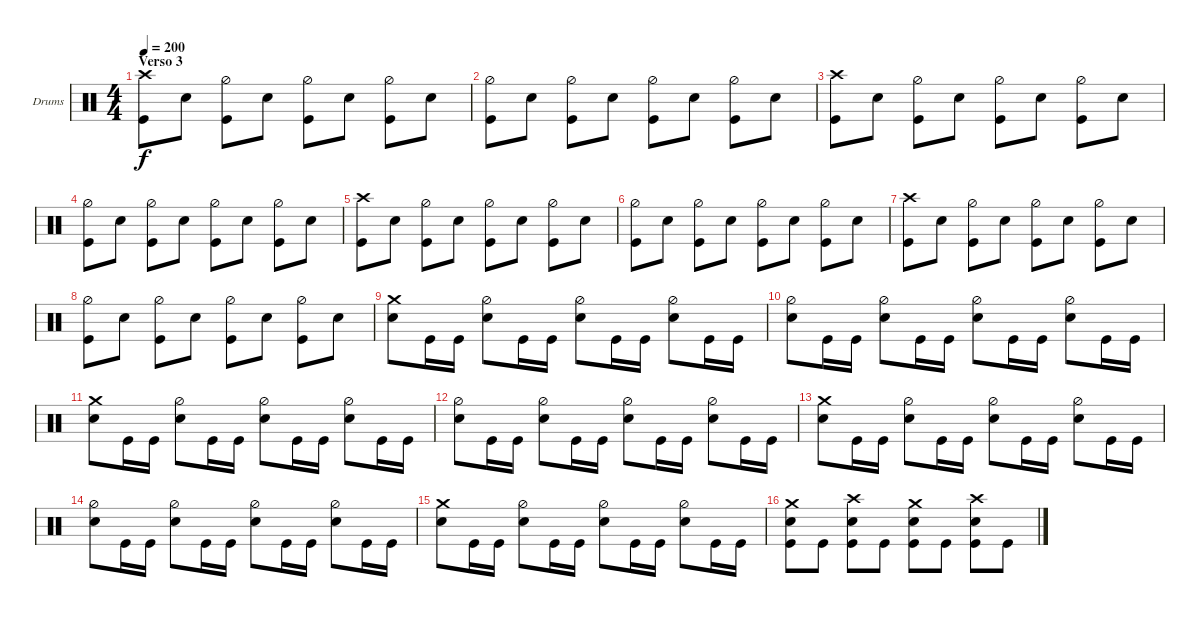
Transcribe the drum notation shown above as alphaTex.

\defaultSystemsLayout 4
\bracketExtendMode groupsimilarinstruments
\firstSystemTrackNameOrientation horizontal
\otherSystemsTrackNameOrientation horizontal
\track ("Drums" "Drums") {instrument percussion}
\staff {score}
\articulation defaults
\ts (4 4)
\section ("" "Verso 3")
\tempo 200
\clef neutral
\ks c
("Crash high (hit)" "Kick (hit)").8{dy f} "Snare (hit) 2".8 ("Hi-Hat (half)" "Kick (hit)").8 "Snare (hit) 2".8 ("Hi-Hat (half)" "Kick (hit)").8 "Snare (hit) 2".8 ("Hi-Hat (half)" "Kick (hit)").8 "Snare (hit) 2".8 |
("Hi-Hat (half)" "Kick (hit)").8 "Snare (hit) 2".8 ("Hi-Hat (half)" "Kick (hit)").8 "Snare (hit) 2".8 ("Hi-Hat (half)" "Kick (hit)").8 "Snare (hit) 2".8 ("Hi-Hat (half)" "Kick (hit)").8 "Snare (hit) 2".8 |
("Crash high (hit)" "Kick (hit)").8 "Snare (hit) 2".8 ("Hi-Hat (half)" "Kick (hit)").8 "Snare (hit) 2".8 ("Hi-Hat (half)" "Kick (hit)").8 "Snare (hit) 2".8 ("Hi-Hat (half)" "Kick (hit)").8 "Snare (hit) 2".8 |
("Hi-Hat (half)" "Kick (hit)").8 "Snare (hit) 2".8 ("Hi-Hat (half)" "Kick (hit)").8 "Snare (hit) 2".8 ("Hi-Hat (half)" "Kick (hit)").8 "Snare (hit) 2".8 ("Hi-Hat (half)" "Kick (hit)").8 "Snare (hit) 2".8 |
("Crash high (hit)" "Kick (hit)").8 "Snare (hit) 2".8 ("Hi-Hat (half)" "Kick (hit)").8 "Snare (hit) 2".8 ("Hi-Hat (half)" "Kick (hit)").8 "Snare (hit) 2".8 ("Hi-Hat (half)" "Kick (hit)").8 "Snare (hit) 2".8 |
("Hi-Hat (half)" "Kick (hit)").8 "Snare (hit) 2".8 ("Hi-Hat (half)" "Kick (hit)").8 "Snare (hit) 2".8 ("Hi-Hat (half)" "Kick (hit)").8 "Snare (hit) 2".8 ("Hi-Hat (half)" "Kick (hit)").8 "Snare (hit) 2".8 |
("Crash high (hit)" "Kick (hit)").8 "Snare (hit) 2".8 ("Hi-Hat (half)" "Kick (hit)").8 "Snare (hit) 2".8 ("Hi-Hat (half)" "Kick (hit)").8 "Snare (hit) 2".8 ("Hi-Hat (half)" "Kick (hit)").8 "Snare (hit) 2".8 |
("Hi-Hat (half)" "Kick (hit)").8 "Snare (hit) 2".8 ("Hi-Hat (half)" "Kick (hit)").8 "Snare (hit) 2".8 ("Hi-Hat (half)" "Kick (hit)").8 "Snare (hit) 2".8 ("Hi-Hat (half)" "Kick (hit)").8 "Snare (hit) 2".8 |
("Snare (hit) 2" "Crash medium (hit)").8 "Kick (hit)".16 "Kick (hit)".16 ("Snare (hit) 2" "Hi-Hat (half)").8 "Kick (hit)".16 "Kick (hit)".16 ("Snare (hit) 2" "Hi-Hat (half)").8 "Kick (hit)".16 "Kick (hit)".16 ("Snare (hit) 2" "Hi-Hat (half)").8 "Kick (hit)".16 "Kick (hit)".16 |
("Snare (hit) 2" "Hi-Hat (half)").8 "Kick (hit)".16 "Kick (hit)".16 ("Snare (hit) 2" "Hi-Hat (half)").8 "Kick (hit)".16 "Kick (hit)".16 ("Snare (hit) 2" "Hi-Hat (half)").8 "Kick (hit)".16 "Kick (hit)".16 ("Snare (hit) 2" "Hi-Hat (half)").8 "Kick (hit)".16 "Kick (hit)".16 |
("Snare (hit) 2" "Crash medium (hit)").8 "Kick (hit)".16 "Kick (hit)".16 ("Snare (hit) 2" "Hi-Hat (half)").8 "Kick (hit)".16 "Kick (hit)".16 ("Snare (hit) 2" "Hi-Hat (half)").8 "Kick (hit)".16 "Kick (hit)".16 ("Snare (hit) 2" "Hi-Hat (half)").8 "Kick (hit)".16 "Kick (hit)".16 |
("Snare (hit) 2" "Hi-Hat (half)").8 "Kick (hit)".16 "Kick (hit)".16 ("Snare (hit) 2" "Hi-Hat (half)").8 "Kick (hit)".16 "Kick (hit)".16 ("Snare (hit) 2" "Hi-Hat (half)").8 "Kick (hit)".16 "Kick (hit)".16 ("Snare (hit) 2" "Hi-Hat (half)").8 "Kick (hit)".16 "Kick (hit)".16 |
("Snare (hit) 2" "Crash medium (hit)").8 "Kick (hit)".16 "Kick (hit)".16 ("Snare (hit) 2" "Hi-Hat (half)").8 "Kick (hit)".16 "Kick (hit)".16 ("Snare (hit) 2" "Hi-Hat (half)").8 "Kick (hit)".16 "Kick (hit)".16 ("Snare (hit) 2" "Hi-Hat (half)").8 "Kick (hit)".16 "Kick (hit)".16 |
("Snare (hit) 2" "Hi-Hat (half)").8 "Kick (hit)".16 "Kick (hit)".16 ("Snare (hit) 2" "Hi-Hat (half)").8 "Kick (hit)".16 "Kick (hit)".16 ("Snare (hit) 2" "Hi-Hat (half)").8 "Kick (hit)".16 "Kick (hit)".16 ("Snare (hit) 2" "Hi-Hat (half)").8 "Kick (hit)".16 "Kick (hit)".16 |
("Snare (hit) 2" "Crash medium (hit)").8 "Kick (hit)".16 "Kick (hit)".16 ("Snare (hit) 2" "Hi-Hat (half)").8 "Kick (hit)".16 "Kick (hit)".16 ("Snare (hit) 2" "Hi-Hat (half)").8 "Kick (hit)".16 "Kick (hit)".16 ("Snare (hit) 2" "Hi-Hat (half)").8 "Kick (hit)".16 "Kick (hit)".16 |
("Kick (hit)" "Snare (hit) 2" "Crash medium (hit)").8 "Kick (hit)".8 ("Kick (hit)" "Snare (hit) 2" "Crash high (hit)").8 "Kick (hit)".8 ("Kick (hit)" "Snare (hit) 2" "Crash medium (hit)").8 "Kick (hit)".8 ("Kick (hit)" "Snare (hit) 2" "Crash high (hit)").8 "Kick (hit)".8
